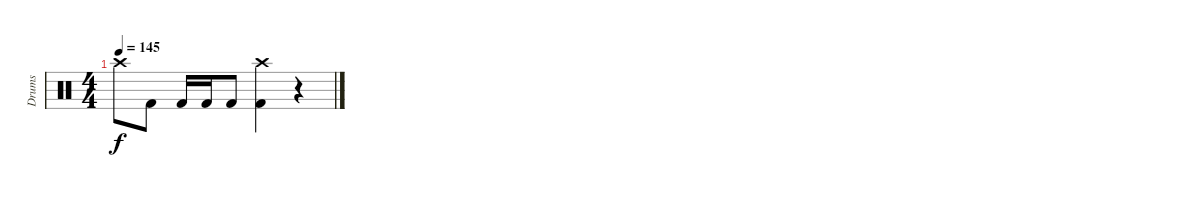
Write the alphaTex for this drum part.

\track ("Drums" "Drums") {instrument percussion}
\staff {score}
\articulation defaults
\ts (4 4)
\tempo 145
\clef neutral
\ks c "Crash high (hit)".8{dy f} "Kick (hit) 2".8 "Kick (hit) 2".16 "Kick (hit) 2".16 "Kick (hit) 2".8
("Crash high (hit)" "Kick (hit) 2").4 r.4
